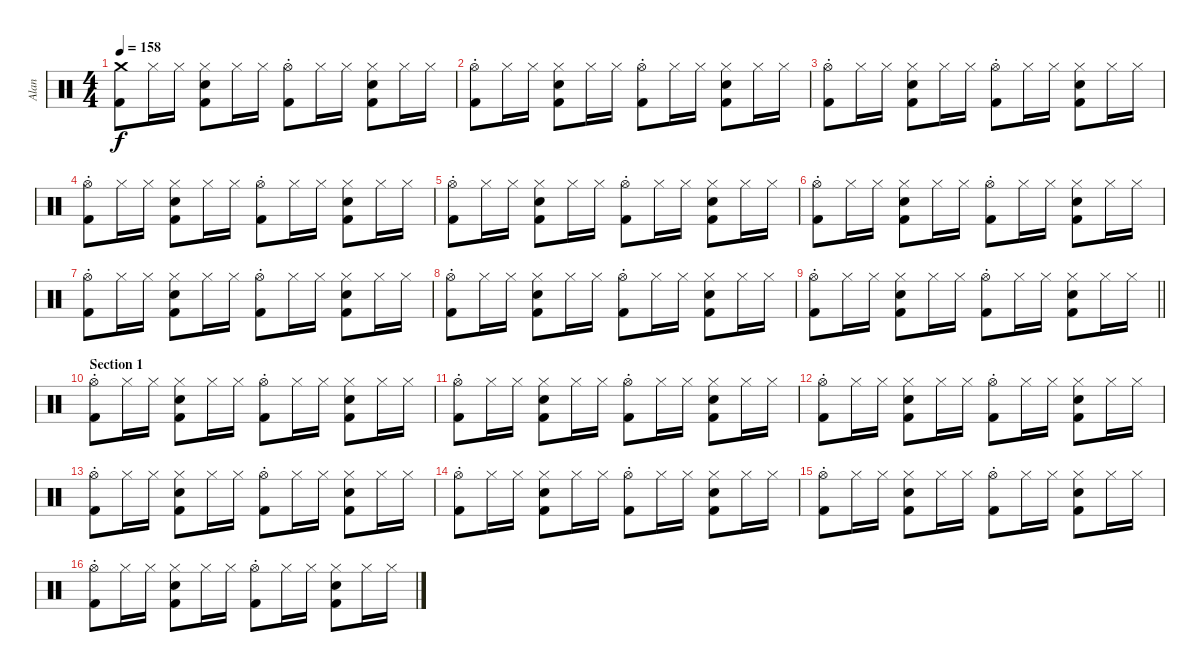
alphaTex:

\track ("Alan" "Alan") {instrument percussion}
\staff {score}
\articulation defaults
\ts (4 4)
\tempo 158
\clef neutral
\ks c
("Crash medium (hit)" "Kick (hit) 2").8{dy f} "Hi-Hat (closed)".16 "Hi-Hat (closed)".16 ("Hi-Hat (closed)" "Kick (hit) 2" "Snare (hit) 2").8 "Hi-Hat (closed)".16 "Hi-Hat (closed)".16 ("Hi-Hat (open)"{st} "Kick (hit) 2").8 "Hi-Hat (closed)".16 "Hi-Hat (closed)".16 ("Hi-Hat (closed)" "Kick (hit) 2" "Snare (hit) 2").8 "Hi-Hat (closed)".16 "Hi-Hat (closed)".16 |
("Hi-Hat (open)"{st} "Kick (hit) 2").8 "Hi-Hat (closed)".16 "Hi-Hat (closed)".16 ("Hi-Hat (closed)" "Kick (hit) 2" "Snare (hit) 2").8 "Hi-Hat (closed)".16 "Hi-Hat (closed)".16 ("Hi-Hat (open)"{st} "Kick (hit) 2").8 "Hi-Hat (closed)".16 "Hi-Hat (closed)".16 ("Hi-Hat (closed)" "Kick (hit) 2" "Snare (hit) 2").8 "Hi-Hat (closed)".16 "Hi-Hat (closed)".16 |
("Hi-Hat (open)"{st} "Kick (hit) 2").8 "Hi-Hat (closed)".16 "Hi-Hat (closed)".16 ("Hi-Hat (closed)" "Kick (hit) 2" "Snare (hit) 2").8 "Hi-Hat (closed)".16 "Hi-Hat (closed)".16 ("Hi-Hat (open)"{st} "Kick (hit) 2").8 "Hi-Hat (closed)".16 "Hi-Hat (closed)".16 ("Hi-Hat (closed)" "Kick (hit) 2" "Snare (hit) 2").8 "Hi-Hat (closed)".16 "Hi-Hat (closed)".16 |
("Hi-Hat (open)"{st} "Kick (hit) 2").8 "Hi-Hat (closed)".16 "Hi-Hat (closed)".16 ("Hi-Hat (closed)" "Kick (hit) 2" "Snare (hit) 2").8 "Hi-Hat (closed)".16 "Hi-Hat (closed)".16 ("Hi-Hat (open)"{st} "Kick (hit) 2").8 "Hi-Hat (closed)".16 "Hi-Hat (closed)".16 ("Hi-Hat (closed)" "Kick (hit) 2" "Snare (hit) 2").8 "Hi-Hat (closed)".16 "Hi-Hat (closed)".16 |
("Hi-Hat (open)"{st} "Kick (hit) 2").8 "Hi-Hat (closed)".16 "Hi-Hat (closed)".16 ("Hi-Hat (closed)" "Kick (hit) 2" "Snare (hit) 2").8 "Hi-Hat (closed)".16 "Hi-Hat (closed)".16 ("Hi-Hat (open)"{st} "Kick (hit) 2").8 "Hi-Hat (closed)".16 "Hi-Hat (closed)".16 ("Hi-Hat (closed)" "Kick (hit) 2" "Snare (hit) 2").8 "Hi-Hat (closed)".16 "Hi-Hat (closed)".16 |
("Hi-Hat (open)"{st} "Kick (hit) 2").8 "Hi-Hat (closed)".16 "Hi-Hat (closed)".16 ("Hi-Hat (closed)" "Kick (hit) 2" "Snare (hit) 2").8 "Hi-Hat (closed)".16 "Hi-Hat (closed)".16 ("Hi-Hat (open)"{st} "Kick (hit) 2").8 "Hi-Hat (closed)".16 "Hi-Hat (closed)".16 ("Hi-Hat (closed)" "Kick (hit) 2" "Snare (hit) 2").8 "Hi-Hat (closed)".16 "Hi-Hat (closed)".16 |
("Hi-Hat (open)"{st} "Kick (hit) 2").8 "Hi-Hat (closed)".16 "Hi-Hat (closed)".16 ("Hi-Hat (closed)" "Kick (hit) 2" "Snare (hit) 2").8 "Hi-Hat (closed)".16 "Hi-Hat (closed)".16 ("Hi-Hat (open)"{st} "Kick (hit) 2").8 "Hi-Hat (closed)".16 "Hi-Hat (closed)".16 ("Hi-Hat (closed)" "Kick (hit) 2" "Snare (hit) 2").8 "Hi-Hat (closed)".16 "Hi-Hat (closed)".16 |
("Hi-Hat (open)"{st} "Kick (hit) 2").8 "Hi-Hat (closed)".16 "Hi-Hat (closed)".16 ("Hi-Hat (closed)" "Kick (hit) 2" "Snare (hit) 2").8 "Hi-Hat (closed)".16 "Hi-Hat (closed)".16 ("Hi-Hat (open)"{st} "Kick (hit) 2").8 "Hi-Hat (closed)".16 "Hi-Hat (closed)".16 ("Hi-Hat (closed)" "Kick (hit) 2" "Snare (hit) 2").8 "Hi-Hat (closed)".16 "Hi-Hat (closed)".16 |
\barLineRight lightlight
("Hi-Hat (open)"{st} "Kick (hit) 2").8 "Hi-Hat (closed)".16 "Hi-Hat (closed)".16 ("Hi-Hat (closed)" "Kick (hit) 2" "Snare (hit) 2").8 "Hi-Hat (closed)".16 "Hi-Hat (closed)".16 ("Hi-Hat (open)"{st} "Kick (hit) 2").8 "Hi-Hat (closed)".16 "Hi-Hat (closed)".16 ("Hi-Hat (closed)" "Kick (hit) 2" "Snare (hit) 2").8 "Hi-Hat (closed)".16 "Hi-Hat (closed)".16 |
\section ("" "Section 1")
("Hi-Hat (open)"{st} "Kick (hit) 2").8 "Hi-Hat (closed)".16 "Hi-Hat (closed)".16 ("Hi-Hat (closed)" "Kick (hit) 2" "Snare (hit) 2").8 "Hi-Hat (closed)".16 "Hi-Hat (closed)".16 ("Hi-Hat (open)"{st} "Kick (hit) 2").8 "Hi-Hat (closed)".16 "Hi-Hat (closed)".16 ("Hi-Hat (closed)" "Kick (hit) 2" "Snare (hit) 2").8 "Hi-Hat (closed)".16 "Hi-Hat (closed)".16 |
("Hi-Hat (open)"{st} "Kick (hit) 2").8 "Hi-Hat (closed)".16 "Hi-Hat (closed)".16 ("Hi-Hat (closed)" "Kick (hit) 2" "Snare (hit) 2").8 "Hi-Hat (closed)".16 "Hi-Hat (closed)".16 ("Hi-Hat (open)"{st} "Kick (hit) 2").8 "Hi-Hat (closed)".16 "Hi-Hat (closed)".16 ("Hi-Hat (closed)" "Kick (hit) 2" "Snare (hit) 2").8 "Hi-Hat (closed)".16 "Hi-Hat (closed)".16 |
("Hi-Hat (open)"{st} "Kick (hit) 2").8 "Hi-Hat (closed)".16 "Hi-Hat (closed)".16 ("Hi-Hat (closed)" "Kick (hit) 2" "Snare (hit) 2").8 "Hi-Hat (closed)".16 "Hi-Hat (closed)".16 ("Hi-Hat (open)"{st} "Kick (hit) 2").8 "Hi-Hat (closed)".16 "Hi-Hat (closed)".16 ("Hi-Hat (closed)" "Kick (hit) 2" "Snare (hit) 2").8 "Hi-Hat (closed)".16 "Hi-Hat (closed)".16 |
("Hi-Hat (open)"{st} "Kick (hit) 2").8 "Hi-Hat (closed)".16 "Hi-Hat (closed)".16 ("Hi-Hat (closed)" "Kick (hit) 2" "Snare (hit) 2").8 "Hi-Hat (closed)".16 "Hi-Hat (closed)".16 ("Hi-Hat (open)"{st} "Kick (hit) 2").8 "Hi-Hat (closed)".16 "Hi-Hat (closed)".16 ("Hi-Hat (closed)" "Kick (hit) 2" "Snare (hit) 2").8 "Hi-Hat (closed)".16 "Hi-Hat (closed)".16 |
("Hi-Hat (open)"{st} "Kick (hit) 2").8 "Hi-Hat (closed)".16 "Hi-Hat (closed)".16 ("Hi-Hat (closed)" "Kick (hit) 2" "Snare (hit) 2").8 "Hi-Hat (closed)".16 "Hi-Hat (closed)".16 ("Hi-Hat (open)"{st} "Kick (hit) 2").8 "Hi-Hat (closed)".16 "Hi-Hat (closed)".16 ("Hi-Hat (closed)" "Kick (hit) 2" "Snare (hit) 2").8 "Hi-Hat (closed)".16 "Hi-Hat (closed)".16 |
("Hi-Hat (open)"{st} "Kick (hit) 2").8 "Hi-Hat (closed)".16 "Hi-Hat (closed)".16 ("Hi-Hat (closed)" "Kick (hit) 2" "Snare (hit) 2").8 "Hi-Hat (closed)".16 "Hi-Hat (closed)".16 ("Hi-Hat (open)"{st} "Kick (hit) 2").8 "Hi-Hat (closed)".16 "Hi-Hat (closed)".16 ("Hi-Hat (closed)" "Kick (hit) 2" "Snare (hit) 2").8 "Hi-Hat (closed)".16 "Hi-Hat (closed)".16 |
("Hi-Hat (open)"{st} "Kick (hit) 2").8 "Hi-Hat (closed)".16 "Hi-Hat (closed)".16 ("Hi-Hat (closed)" "Kick (hit) 2" "Snare (hit) 2").8 "Hi-Hat (closed)".16 "Hi-Hat (closed)".16 ("Hi-Hat (open)"{st} "Kick (hit) 2").8 "Hi-Hat (closed)".16 "Hi-Hat (closed)".16 ("Hi-Hat (closed)" "Kick (hit) 2" "Snare (hit) 2").8 "Hi-Hat (closed)".16 "Hi-Hat (closed)".16
